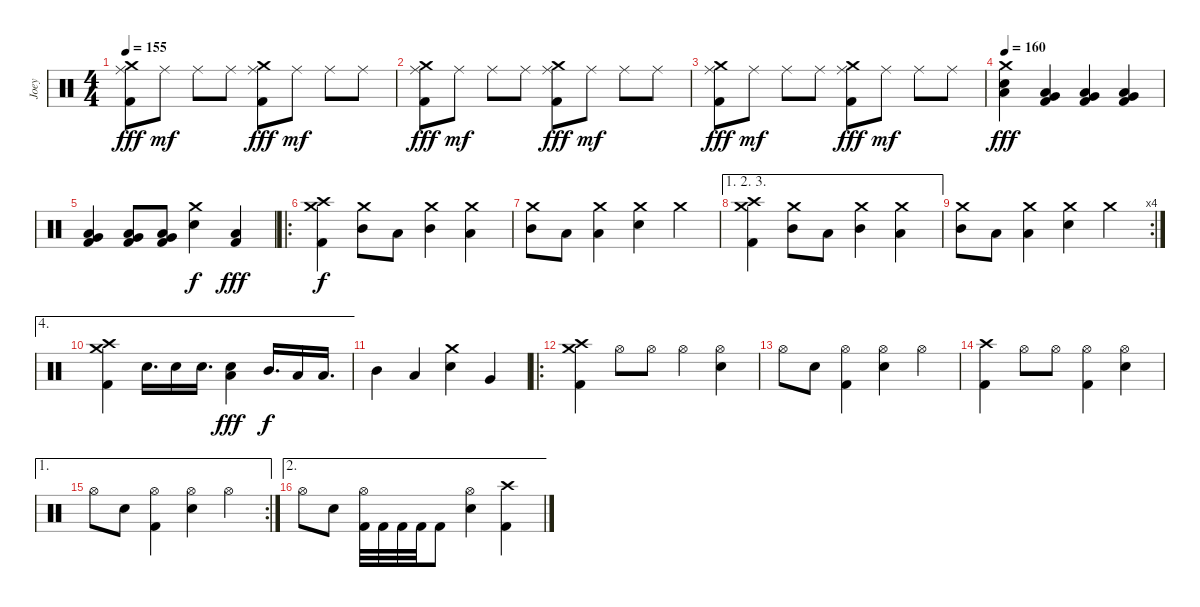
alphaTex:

\track ("Joey" "Joey") {instrument percussion}
\staff {score}
\articulation defaults
\ts (4 4)
\tempo 155
\clef neutral
\ks c
("Crash medium (hit)" "Ride (middle)" "Kick (hit) 2").8{dy fff} "Ride (middle)".8{dy mf} "Ride (middle)".8 "Ride (middle)".8 ("Crash medium (hit)" "Ride (middle)" "Kick (hit) 2").8{dy fff} "Ride (middle)".8{dy mf} "Ride (middle)".8 "Ride (middle)".8 |
("Crash medium (hit)" "Ride (middle)" "Kick (hit) 2").8{dy fff} "Ride (middle)".8{dy mf} "Ride (middle)".8 "Ride (middle)".8 ("Crash medium (hit)" "Ride (middle)" "Kick (hit) 2").8{dy fff} "Ride (middle)".8{dy mf} "Ride (middle)".8 "Ride (middle)".8 |
("Crash medium (hit)" "Ride (middle)" "Kick (hit) 2").8{dy fff} "Ride (middle)".8{dy mf} "Ride (middle)".8 "Ride (middle)".8 ("Crash medium (hit)" "Ride (middle)" "Kick (hit) 2").8{dy fff} "Ride (middle)".8{dy mf} "Ride (middle)".8 "Ride (middle)".8 |
\tempo 160
("Crash medium (hit)" "Electric Snare (hit)" "Low Tom (hit)").4{dy fff volume 15} ("Low Tom (hit)" "Very Low Tom (hit)" "Kick (hit) 2").4 ("Low Tom (hit)" "Very Low Tom (hit)" "Kick (hit) 2").4 ("Low Tom (hit)" "Very Low Tom (hit)" "Kick (hit) 2").4 |
("Low Tom (hit)" "Very Low Tom (hit)" "Kick (hit) 2").4 ("Low Tom (hit)" "Very Low Tom (hit)" "Kick (hit) 2").8 ("Low Tom (hit)" "Very Low Tom (hit)" "Kick (hit) 2").8 ("Crash medium (hit)" "Electric Snare (hit)").4{dy f} ("Low Floor Tom (hit)" "Kick (hit) 2").4{dy fff} |
\ro
("Crash high (hit)" "Crash medium (hit)" "Kick (hit) 2").4{dy f} ("Crash medium (hit)" "Mid Tom (hit)").8 "Low Tom (hit)".8 ("Crash medium (hit)" "Mid Tom (hit)").4 ("Crash medium (hit)" "Low Tom (hit)").4 |
("Crash medium (hit)" "Mid Tom (hit)").8 "Low Tom (hit)".8 ("Crash medium (hit)" "Low Tom (hit)").4 ("Crash medium (hit)" "Electric Snare (hit)").4 "Crash medium (hit)".4 |
\ae (1 2 3)
("Crash high (hit)" "Crash medium (hit)" "Kick (hit) 2").4 ("Crash medium (hit)" "Mid Tom (hit)").8 "Low Tom (hit)".8 ("Crash medium (hit)" "Mid Tom (hit)").4 ("Crash medium (hit)" "Low Tom (hit)").4 |
\rc 4
("Crash medium (hit)" "Mid Tom (hit)").8 "Low Tom (hit)".8 ("Crash medium (hit)" "Low Tom (hit)").4 ("Crash medium (hit)" "Electric Snare (hit)").4 "Crash medium (hit)".4 |
\ae 4
("Crash high (hit)" "Crash medium (hit)" "Kick (hit) 2").4 "Electric Snare (hit)".16{d} "Electric Snare (hit)".16 "Electric Snare (hit)".16{d} ("Electric Snare (hit)" "Low Floor Tom (hit)").4{dy fff} "Mid Tom (hit)".16{d dy f} "Low Tom (hit)".16 "Low Tom (hit)".16{d} |
"Mid Tom (hit)".4 "Low Tom (hit)".4 ("Crash medium (hit)" "Electric Snare (hit)").4 "Very Low Tom (hit)".4 |
\ro
("Crash high (hit)" "Crash medium (hit)" "Kick (hit) 2").4 "Hi-Hat (open)".8 "Hi-Hat (open)".8 "Hi-Hat (open)".4 ("Hi-Hat (open)" "Electric Snare (hit)").4 |
"Hi-Hat (open)".8 "Electric Snare (hit)".8 ("Hi-Hat (open)" "Kick (hit) 2").4 ("Hi-Hat (open)" "Electric Snare (hit)").4 "Hi-Hat (open)".4 |
("Crash high (hit)" "Kick (hit) 2").4 "Hi-Hat (open)".8 "Hi-Hat (open)".8 ("Hi-Hat (open)" "Kick (hit) 2").4 ("Hi-Hat (open)" "Electric Snare (hit)").4 |
\ae 1
\rc 2 "Hi-Hat (open)".8 "Electric Snare (hit)".8
("Hi-Hat (open)" "Kick (hit) 2").4 ("Hi-Hat (open)" "Electric Snare (hit)").4 "Hi-Hat (open)".4 |
\ae 2 "Hi-Hat (open)".8 "Electric Snare (hit)".8
("Hi-Hat (open)" "Kick (hit) 2").32 "Kick (hit) 2".32 "Kick (hit) 2".32 "Kick (hit) 2".32 "Kick (hit) 2".8 ("Hi-Hat (open)" "Electric Snare (hit)").4 ("Crash high (hit)" "Kick (hit) 2").4
